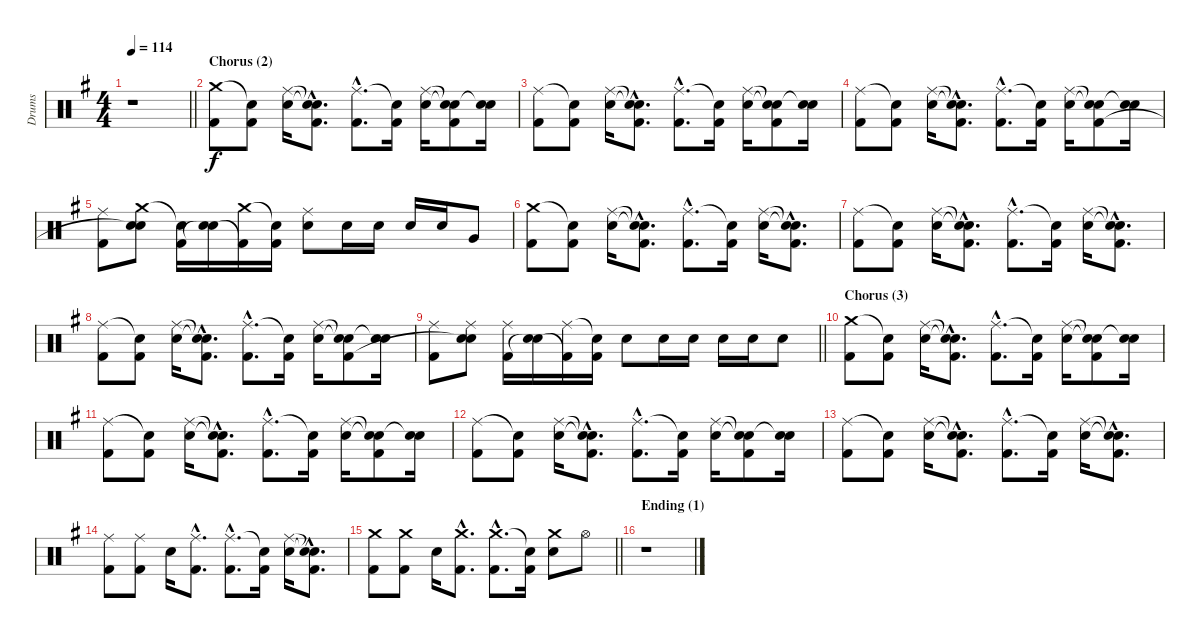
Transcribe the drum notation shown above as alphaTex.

\track ("Drums" "Drums") {instrument percussion}
\staff {score}
\articulation defaults
\ts (4 4)
\tempo 114
\clef neutral
\barLineRight lightlight
\ks eminor
r.1{dy f} |
\section ("" "Chorus (2)")
("Crash medium (hit)" "Kick (hit) 2").8 ("Snare (hit)"{t} "Kick (hit) 2").8 ("Ride (middle)" "Electric Snare (hit)").16 ("Snare (hit)"{hac t} "Snare (hit)"{hac t} "Kick (hit) 2"{hac}).8{d} ("Ride (middle)"{hac} "Kick (hit) 2"{hac}).8{d} ("Snare (hit)"{t} "Kick (hit) 2").16 ("Ride (middle)" "Electric Snare (hit)").16 ("Snare (hit)"{t} "Snare (hit)"{t} "Kick (hit) 2").8 ("Electric Snare (hit)" "Snare (hit)"{t}).16 |
("Ride (middle)" "Kick (hit) 2").8 ("Snare (hit)"{t} "Kick (hit) 2").8 ("Ride (middle)" "Electric Snare (hit)").16 ("Snare (hit)"{hac t} "Snare (hit)"{hac t} "Kick (hit) 2"{hac}).8{d} ("Ride (middle)"{hac} "Kick (hit) 2"{hac}).8{d} ("Snare (hit)"{t} "Kick (hit) 2").16 ("Ride (middle)" "Electric Snare (hit)").16 ("Snare (hit)"{t} "Snare (hit)"{t} "Kick (hit) 2").8 ("Electric Snare (hit)" "Snare (hit)"{t}).16 |
("Ride (middle)" "Kick (hit) 2").8 ("Snare (hit)"{t} "Kick (hit) 2").8 ("Ride (middle)" "Electric Snare (hit)").16 ("Snare (hit)"{hac t} "Snare (hit)"{hac t} "Kick (hit) 2"{hac}).8{d} ("Ride (middle)"{hac} "Kick (hit) 2"{hac}).8{d} ("Snare (hit)"{t} "Kick (hit) 2").16 ("Ride (middle)" "Electric Snare (hit)").16 ("Snare (hit)"{t} "Snare (hit)"{t} "Kick (hit) 2").8 ("Electric Snare (hit)" "Snare (hit)"{t}).16 |
("Ride (middle)" "Kick (hit) 2").8 ("Crash medium (hit)" "Electric Snare (hit)" "Snare (hit)"{t}).8 ("Snare (hit)"{t} "Kick (hit) 2").16 ("Electric Snare (hit)" "Snare (hit)"{t}).16 ("Crash medium (hit)" "Kick (hit) 2"{t}).16 ("Snare (hit)"{t} "Kick (hit) 2").16 ("Ride (middle)" "Electric Snare (hit)").8 "Electric Snare (hit)".16 "Electric Snare (hit)".16 "Electric Snare (hit)".16 "Electric Snare (hit)".16 "Very Low Tom (hit)".8 |
("Crash medium (hit)" "Kick (hit) 2").8 ("Snare (hit)"{t} "Kick (hit) 2").8 ("Ride (middle)" "Electric Snare (hit)").16 ("Snare (hit)"{hac t} "Snare (hit)"{hac t} "Kick (hit) 2"{hac}).8{d} ("Ride (middle)"{hac} "Kick (hit) 2"{hac}).8{d} ("Snare (hit)"{t} "Kick (hit) 2").16 ("Ride (middle)" "Electric Snare (hit)").16 ("Snare (hit)"{hac t} "Snare (hit)"{hac t} "Kick (hit) 2"{hac}).8{d} |
("Ride (middle)" "Kick (hit) 2").8 ("Snare (hit)"{t} "Kick (hit) 2").8 ("Ride (middle)" "Electric Snare (hit)").16 ("Snare (hit)"{hac t} "Snare (hit)"{hac t} "Kick (hit) 2"{hac}).8{d} ("Ride (middle)"{hac} "Kick (hit) 2"{hac}).8{d} ("Snare (hit)"{t} "Kick (hit) 2").16 ("Ride (middle)" "Electric Snare (hit)").16 ("Snare (hit)"{hac t} "Snare (hit)"{hac t} "Kick (hit) 2"{hac}).8{d} |
("Ride (middle)" "Kick (hit) 2").8 ("Snare (hit)"{t} "Kick (hit) 2").8 ("Ride (middle)" "Electric Snare (hit)").16 ("Snare (hit)"{hac t} "Snare (hit)"{hac t} "Kick (hit) 2"{hac}).8{d} ("Ride (middle)"{hac} "Kick (hit) 2"{hac}).8{d} ("Snare (hit)"{t} "Kick (hit) 2").16 ("Ride (middle)" "Electric Snare (hit)").16 ("Snare (hit)"{t} "Snare (hit)"{t} "Kick (hit) 2").8 ("Electric Snare (hit)" "Snare (hit)"{t}).16 |
\barLineRight lightlight
("Ride (middle)" "Kick (hit) 2").8 ("Ride (middle)" "Electric Snare (hit)" "Snare (hit)"{t}).8 ("Ride (middle)" "Kick (hit) 2").16 ("Electric Snare (hit)" "Snare (hit)"{t}).16 ("Ride (middle)" "Kick (hit) 2"{t}).16 ("Snare (hit)"{t} "Kick (hit) 2").16 "Electric Snare (hit)".8 "Electric Snare (hit)".16 "Electric Snare (hit)".16 "Electric Snare (hit)".16 "Electric Snare (hit)".16 "Electric Snare (hit)".8 |
\section ("" "Chorus (3)")
("Crash medium (hit)" "Kick (hit) 2").8 ("Snare (hit)"{t} "Kick (hit) 2").8 ("Ride (middle)" "Electric Snare (hit)").16 ("Snare (hit)"{hac t} "Snare (hit)"{hac t} "Kick (hit) 2"{hac}).8{d} ("Ride (middle)"{hac} "Kick (hit) 2"{hac}).8{d} ("Snare (hit)"{t} "Kick (hit) 2").16 ("Ride (middle)" "Electric Snare (hit)").16 ("Snare (hit)"{t} "Snare (hit)"{t} "Kick (hit) 2").8 ("Electric Snare (hit)" "Snare (hit)"{t}).16 |
("Ride (middle)" "Kick (hit) 2").8 ("Snare (hit)"{t} "Kick (hit) 2").8 ("Ride (middle)" "Electric Snare (hit)").16 ("Snare (hit)"{hac t} "Snare (hit)"{hac t} "Kick (hit) 2"{hac}).8{d} ("Ride (middle)"{hac} "Kick (hit) 2"{hac}).8{d} ("Snare (hit)"{t} "Kick (hit) 2").16 ("Ride (middle)" "Electric Snare (hit)").16 ("Snare (hit)"{t} "Snare (hit)"{t} "Kick (hit) 2").8 ("Electric Snare (hit)" "Snare (hit)"{t}).16 |
("Ride (middle)" "Kick (hit) 2").8 ("Snare (hit)"{t} "Kick (hit) 2").8 ("Ride (middle)" "Electric Snare (hit)").16 ("Snare (hit)"{hac t} "Snare (hit)"{hac t} "Kick (hit) 2"{hac}).8{d} ("Ride (middle)"{hac} "Kick (hit) 2"{hac}).8{d} ("Snare (hit)"{t} "Kick (hit) 2").16 ("Ride (middle)" "Electric Snare (hit)").16 ("Snare (hit)"{t} "Snare (hit)"{t} "Kick (hit) 2").8 ("Electric Snare (hit)" "Snare (hit)"{t}).16 |
("Ride (middle)" "Kick (hit) 2").8 ("Snare (hit)"{t} "Kick (hit) 2").8 ("Ride (middle)" "Electric Snare (hit)").16 ("Snare (hit)"{hac t} "Snare (hit)"{hac t} "Kick (hit) 2"{hac}).8{d} ("Ride (middle)"{hac} "Kick (hit) 2"{hac}).8{d} ("Snare (hit)"{t} "Kick (hit) 2").16 ("Ride (middle)" "Electric Snare (hit)").16 ("Snare (hit)"{hac t} "Snare (hit)"{hac t} "Kick (hit) 2"{hac}).8{d} |
("Ride (middle)" "Kick (hit) 2").8 ("Ride (middle)" "Kick (hit) 2").8 "Electric Snare (hit)".16 ("Ride (middle)"{hac} "Kick (hit) 2"{hac}).8{d} ("Ride (middle)"{hac} "Kick (hit) 2"{hac}).8{d} ("Snare (hit)"{t} "Kick (hit) 2").16 ("Ride (middle)" "Electric Snare (hit)").16 ("Snare (hit)"{hac t} "Snare (hit)"{hac t} "Kick (hit) 2"{hac}).8{d} |
\barLineRight lightlight
("Crash medium (hit)" "Kick (hit) 2").8 ("Crash medium (hit)" "Kick (hit) 2").8 "Electric Snare (hit)".16 ("Crash medium (hit)"{hac} "Kick (hit) 2"{hac}).8{d} ("Crash medium (hit)"{hac} "Kick (hit) 2"{hac}).8{d} ("Snare (hit)"{t} "Kick (hit) 2").16 ("Crash medium (hit)" "Electric Snare (hit)").8 "Hi-Hat (open)".8 |
\section ("" "Ending (1)")
r.1
